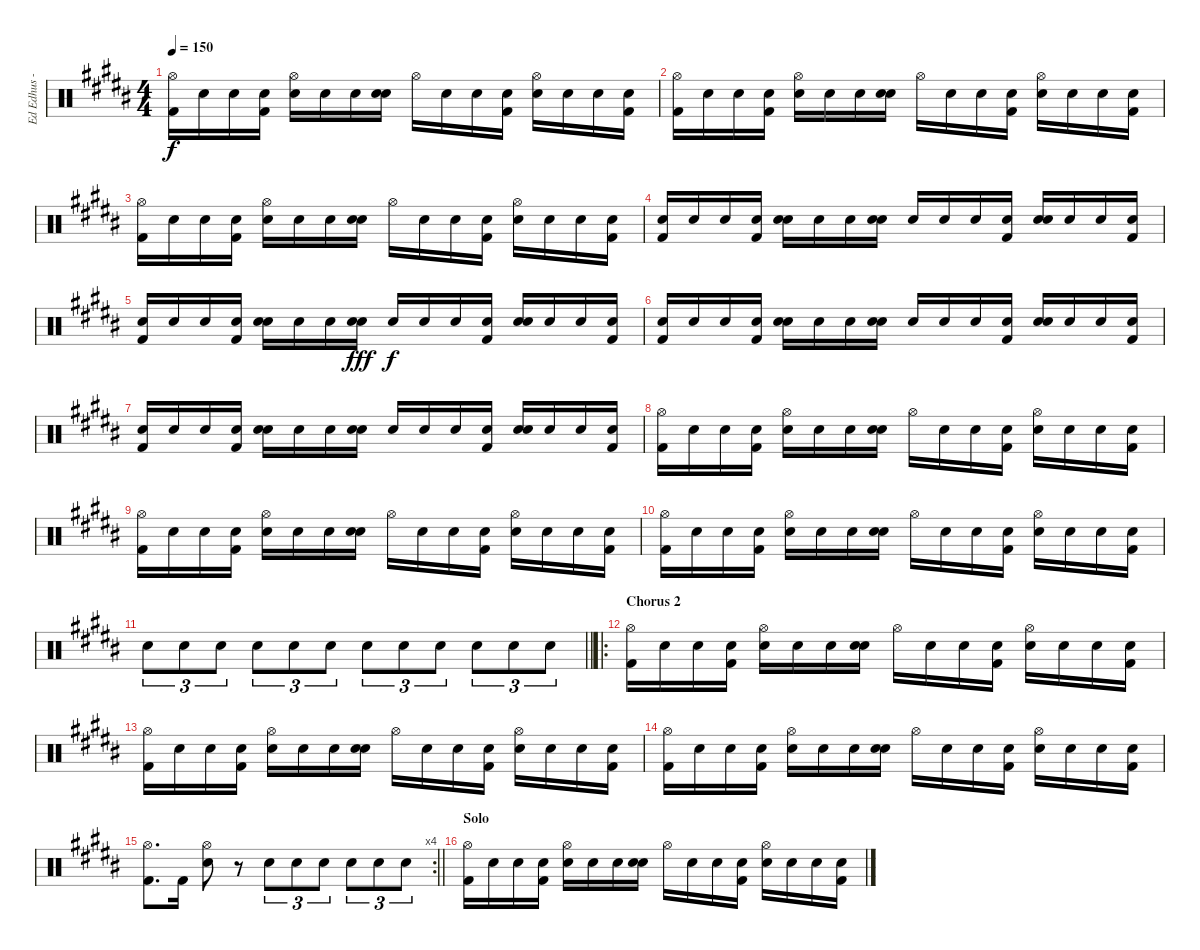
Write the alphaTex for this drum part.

\track ("Ed Edhus - Drums" "Ed Edhus -") {instrument percussion bank 127}
\staff {score}
\articulation defaults
\ts (4 4)
\tempo 150
\clef neutral
\ks g#minor
("Hi-Hat (open)" "Kick (hit) 2").16{dy f} "Snare (hit)".16 "Snare (hit)".16 ("Snare (hit)" "Kick (hit) 2").16 ("Hi-Hat (open)" "Snare (hit) 2").16 "Snare (hit)".16 "Snare (hit)".16 ("Snare (hit)" "Snare (hit) 2").16 "Hi-Hat (open)".16 "Snare (hit)".16 "Snare (hit)".16 ("Snare (hit)" "Kick (hit) 2").16 ("Hi-Hat (open)" "Snare (hit) 2").16 "Snare (hit)".16 "Snare (hit)".16 ("Snare (hit)" "Kick (hit) 2").16 |
("Hi-Hat (open)" "Kick (hit) 2").16 "Snare (hit)".16 "Snare (hit)".16 ("Snare (hit)" "Kick (hit) 2").16 ("Hi-Hat (open)" "Snare (hit) 2").16 "Snare (hit)".16 "Snare (hit)".16 ("Snare (hit)" "Snare (hit) 2").16 "Hi-Hat (open)".16 "Snare (hit)".16 "Snare (hit)".16 ("Snare (hit)" "Kick (hit) 2").16 ("Hi-Hat (open)" "Snare (hit) 2").16 "Snare (hit)".16 "Snare (hit)".16 ("Snare (hit)" "Kick (hit) 2").16 |
("Hi-Hat (open)" "Kick (hit) 2").16 "Snare (hit)".16 "Snare (hit)".16 ("Snare (hit)" "Kick (hit) 2").16 ("Hi-Hat (open)" "Snare (hit) 2").16 "Snare (hit)".16 "Snare (hit)".16 ("Snare (hit)" "Snare (hit) 2").16 "Hi-Hat (open)".16 "Snare (hit)".16 "Snare (hit)".16 ("Snare (hit)" "Kick (hit) 2").16 ("Hi-Hat (open)" "Snare (hit) 2").16 "Snare (hit)".16 "Snare (hit)".16 ("Snare (hit)" "Kick (hit) 2").16 |
("Snare (hit)" "Kick (hit) 2").16 "Snare (hit)".16 "Snare (hit)".16 ("Snare (hit)" "Kick (hit) 2").16 ("Snare (hit)" "Snare (hit) 2").16 "Snare (hit)".16 "Snare (hit)".16 ("Snare (hit)" "Snare (hit) 2").16 "Snare (hit)".16 "Snare (hit)".16 "Snare (hit)".16 ("Snare (hit)" "Kick (hit) 2").16 ("Snare (hit)" "Snare (hit) 2").16 "Snare (hit)".16 "Snare (hit)".16 ("Snare (hit)" "Kick (hit) 2").16 |
("Snare (hit)" "Kick (hit) 2").16 "Snare (hit)".16 "Snare (hit)".16 ("Snare (hit)" "Kick (hit) 2").16 ("Snare (hit)" "Snare (hit) 2").16 "Snare (hit)".16 "Snare (hit)".16 ("Snare (hit)" "Snare (hit) 2").16{dy fff} "Snare (hit)".16{dy f} "Snare (hit)".16 "Snare (hit)".16 ("Snare (hit)" "Kick (hit) 2").16 ("Snare (hit)" "Snare (hit) 2").16 "Snare (hit)".16 "Snare (hit)".16 ("Snare (hit)" "Kick (hit) 2").16 |
("Snare (hit)" "Kick (hit) 2").16 "Snare (hit)".16 "Snare (hit)".16 ("Snare (hit)" "Kick (hit) 2").16 ("Snare (hit)" "Snare (hit) 2").16 "Snare (hit)".16 "Snare (hit)".16 ("Snare (hit)" "Snare (hit) 2").16 "Snare (hit)".16 "Snare (hit)".16 "Snare (hit)".16 ("Snare (hit)" "Kick (hit) 2").16 ("Snare (hit)" "Snare (hit) 2").16 "Snare (hit)".16 "Snare (hit)".16 ("Snare (hit)" "Kick (hit) 2").16 |
("Snare (hit)" "Kick (hit) 2").16 "Snare (hit)".16 "Snare (hit)".16 ("Snare (hit)" "Kick (hit) 2").16 ("Snare (hit)" "Snare (hit) 2").16 "Snare (hit)".16 "Snare (hit)".16 ("Snare (hit)" "Snare (hit) 2").16 "Snare (hit)".16 "Snare (hit)".16 "Snare (hit)".16 ("Snare (hit)" "Kick (hit) 2").16 ("Snare (hit)" "Snare (hit) 2").16 "Snare (hit)".16 "Snare (hit)".16 ("Snare (hit)" "Kick (hit) 2").16 |
("Hi-Hat (open)" "Kick (hit) 2").16 "Snare (hit)".16 "Snare (hit)".16 ("Snare (hit)" "Kick (hit) 2").16 ("Hi-Hat (open)" "Snare (hit) 2").16 "Snare (hit)".16 "Snare (hit)".16 ("Snare (hit)" "Snare (hit) 2").16 "Hi-Hat (open)".16 "Snare (hit)".16 "Snare (hit)".16 ("Snare (hit)" "Kick (hit) 2").16 ("Hi-Hat (open)" "Snare (hit) 2").16 "Snare (hit)".16 "Snare (hit)".16 ("Snare (hit)" "Kick (hit) 2").16 |
("Hi-Hat (open)" "Kick (hit) 2").16 "Snare (hit)".16 "Snare (hit)".16 ("Snare (hit)" "Kick (hit) 2").16 ("Hi-Hat (open)" "Snare (hit) 2").16 "Snare (hit)".16 "Snare (hit)".16 ("Snare (hit)" "Snare (hit) 2").16 "Hi-Hat (open)".16 "Snare (hit)".16 "Snare (hit)".16 ("Snare (hit)" "Kick (hit) 2").16 ("Hi-Hat (open)" "Snare (hit) 2").16 "Snare (hit)".16 "Snare (hit)".16 ("Snare (hit)" "Kick (hit) 2").16 |
("Hi-Hat (open)" "Kick (hit) 2").16 "Snare (hit)".16 "Snare (hit)".16 ("Snare (hit)" "Kick (hit) 2").16 ("Hi-Hat (open)" "Snare (hit) 2").16 "Snare (hit)".16 "Snare (hit)".16 ("Snare (hit)" "Snare (hit) 2").16 "Hi-Hat (open)".16 "Snare (hit)".16 "Snare (hit)".16 ("Snare (hit)" "Kick (hit) 2").16 ("Hi-Hat (open)" "Snare (hit) 2").16 "Snare (hit)".16 "Snare (hit)".16 ("Snare (hit)" "Kick (hit) 2").16 |
\barLineRight lightlight "Snare (hit) 2".8{tu (3 2)} "Snare (hit) 2".8{tu (3 2)} "Snare (hit) 2".8{tu (3 2)} "Snare (hit) 2".8{tu (3 2)} "Snare (hit) 2".8{tu (3 2)} "Snare (hit) 2".8{tu (3 2)} "Snare (hit) 2".8{tu (3 2)} "Snare (hit) 2".8{tu (3 2)} "Snare (hit) 2".8{tu (3 2)} "Snare (hit) 2".8{tu (3 2)} "Snare (hit) 2".8{tu (3 2)} "Snare (hit) 2".8{tu (3 2)}
|
\ro
\section ("" "Chorus 2")
("Hi-Hat (open)" "Kick (hit) 2").16 "Snare (hit)".16 "Snare (hit)".16 ("Snare (hit)" "Kick (hit) 2").16 ("Hi-Hat (open)" "Snare (hit) 2").16 "Snare (hit)".16 "Snare (hit)".16 ("Snare (hit)" "Snare (hit) 2").16 "Hi-Hat (open)".16 "Snare (hit)".16 "Snare (hit)".16 ("Snare (hit)" "Kick (hit) 2").16 ("Hi-Hat (open)" "Snare (hit) 2").16 "Snare (hit)".16 "Snare (hit)".16 ("Snare (hit)" "Kick (hit) 2").16 |
("Hi-Hat (open)" "Kick (hit) 2").16 "Snare (hit)".16 "Snare (hit)".16 ("Snare (hit)" "Kick (hit) 2").16 ("Hi-Hat (open)" "Snare (hit) 2").16 "Snare (hit)".16 "Snare (hit)".16 ("Snare (hit)" "Snare (hit) 2").16 "Hi-Hat (open)".16 "Snare (hit)".16 "Snare (hit)".16 ("Snare (hit)" "Kick (hit) 2").16 ("Hi-Hat (open)" "Snare (hit) 2").16 "Snare (hit)".16 "Snare (hit)".16 ("Snare (hit)" "Kick (hit) 2").16 |
("Hi-Hat (open)" "Kick (hit) 2").16 "Snare (hit)".16 "Snare (hit)".16 ("Snare (hit)" "Kick (hit) 2").16 ("Hi-Hat (open)" "Snare (hit) 2").16 "Snare (hit)".16 "Snare (hit)".16 ("Snare (hit)" "Snare (hit) 2").16 "Hi-Hat (open)".16 "Snare (hit)".16 "Snare (hit)".16 ("Snare (hit)" "Kick (hit) 2").16 ("Hi-Hat (open)" "Snare (hit) 2").16 "Snare (hit)".16 "Snare (hit)".16 ("Snare (hit)" "Kick (hit) 2").16 |
\rc 4
\barLineRight lightlight
("Hi-Hat (open)" "Kick (hit) 2").8{d} "Kick (hit) 2".16 ("Hi-Hat (open)" "Snare (hit) 2").8 r.8 "Snare (hit) 2".8{tu (3 2)} "Snare (hit) 2".8{tu (3 2)} "Snare (hit) 2".8{tu (3 2)} "Snare (hit) 2".8{tu (3 2)} "Snare (hit) 2".8{tu (3 2)} "Snare (hit) 2".8{tu (3 2)} |
\section ("" "Solo")
("Hi-Hat (open)" "Kick (hit) 2").16 "Snare (hit)".16 "Snare (hit)".16 ("Snare (hit)" "Kick (hit) 2").16 ("Hi-Hat (open)" "Snare (hit) 2").16 "Snare (hit)".16 "Snare (hit)".16 ("Snare (hit)" "Snare (hit) 2").16 "Hi-Hat (open)".16 "Snare (hit)".16 "Snare (hit)".16 ("Snare (hit)" "Kick (hit) 2").16 ("Hi-Hat (open)" "Snare (hit) 2").16 "Snare (hit)".16 "Snare (hit)".16 ("Snare (hit)" "Kick (hit) 2").16
